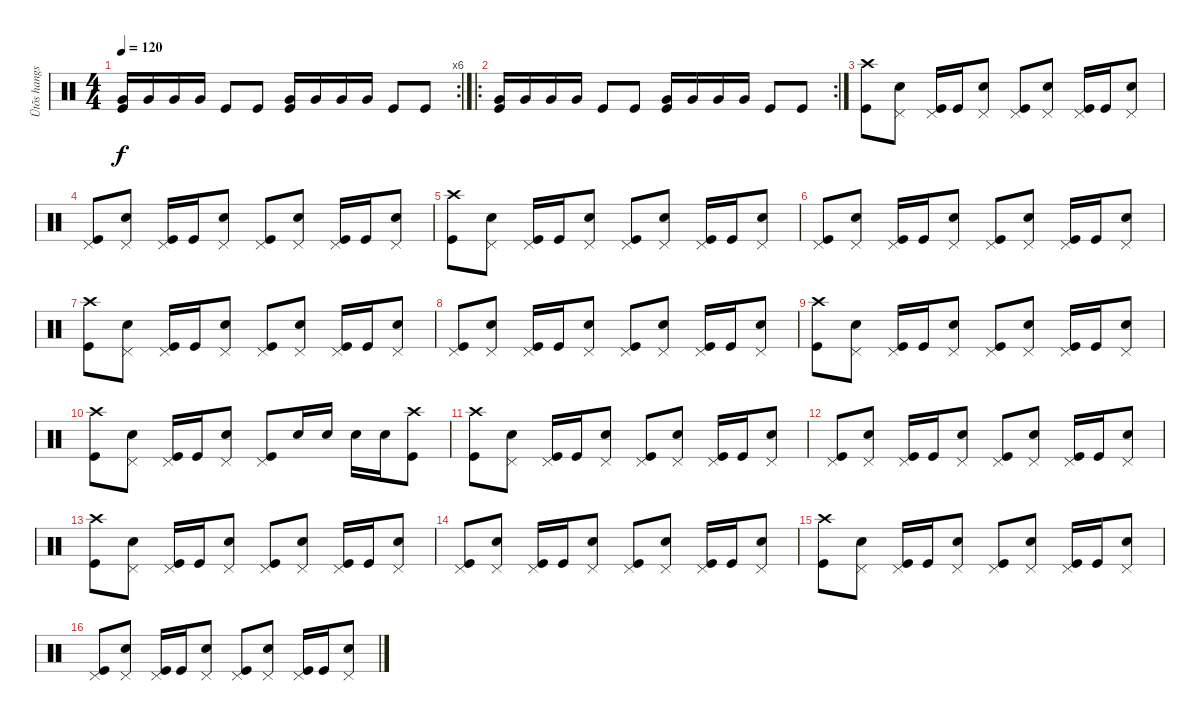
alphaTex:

\track ("Ütõs hangszer" "Ütõs hangs") {instrument percussion}
\staff {score}
\articulation defaults
\rc 6
\ts (4 4)
\tempo 120
\clef neutral
\ks c
("Very Low Tom (hit)" "Kick (hit)").16{dy f} "Very Low Tom (hit)".16 "Very Low Tom (hit)".16 "Very Low Tom (hit)".16 "Kick (hit)".8 "Kick (hit)".8 ("Very Low Tom (hit)" "Kick (hit)").16 "Very Low Tom (hit)".16 "Very Low Tom (hit)".16 "Very Low Tom (hit)".16 "Kick (hit)".8 "Kick (hit)".8 |
\ro
\rc 2
("Very Low Tom (hit)" "Kick (hit)").16 "Very Low Tom (hit)".16 "Very Low Tom (hit)".16 "Very Low Tom (hit)".16 "Kick (hit)".8 "Kick (hit)".8 ("Very Low Tom (hit)" "Kick (hit)").16 "Very Low Tom (hit)".16 "Very Low Tom (hit)".16 "Very Low Tom (hit)".16 "Kick (hit)".8 "Kick (hit)".8 |
("Crash high (hit)" "Kick (hit)").8 ("Pedal Hi-Hat (hit)" "Electric Snare (hit)").8 ("Pedal Hi-Hat (hit)" "Kick (hit)").16 "Kick (hit)".16 ("Pedal Hi-Hat (hit)" "Electric Snare (hit)").8 ("Pedal Hi-Hat (hit)" "Kick (hit)").8 ("Pedal Hi-Hat (hit)" "Electric Snare (hit)").8 ("Pedal Hi-Hat (hit)" "Kick (hit)").16 "Kick (hit)".16 ("Pedal Hi-Hat (hit)" "Electric Snare (hit)").8 |
("Pedal Hi-Hat (hit)" "Kick (hit)").8 ("Pedal Hi-Hat (hit)" "Electric Snare (hit)").8 ("Pedal Hi-Hat (hit)" "Kick (hit)").16 "Kick (hit)".16 ("Pedal Hi-Hat (hit)" "Electric Snare (hit)").8 ("Pedal Hi-Hat (hit)" "Kick (hit)").8 ("Pedal Hi-Hat (hit)" "Electric Snare (hit)").8 ("Pedal Hi-Hat (hit)" "Kick (hit)").16 "Kick (hit)".16 ("Pedal Hi-Hat (hit)" "Electric Snare (hit)").8 |
("Crash high (hit)" "Kick (hit)").8 ("Pedal Hi-Hat (hit)" "Electric Snare (hit)").8 ("Pedal Hi-Hat (hit)" "Kick (hit)").16 "Kick (hit)".16 ("Pedal Hi-Hat (hit)" "Electric Snare (hit)").8 ("Pedal Hi-Hat (hit)" "Kick (hit)").8 ("Pedal Hi-Hat (hit)" "Electric Snare (hit)").8 ("Pedal Hi-Hat (hit)" "Kick (hit)").16 "Kick (hit)".16 ("Pedal Hi-Hat (hit)" "Electric Snare (hit)").8 |
("Pedal Hi-Hat (hit)" "Kick (hit)").8 ("Pedal Hi-Hat (hit)" "Electric Snare (hit)").8 ("Pedal Hi-Hat (hit)" "Kick (hit)").16 "Kick (hit)".16 ("Pedal Hi-Hat (hit)" "Electric Snare (hit)").8 ("Pedal Hi-Hat (hit)" "Kick (hit)").8 ("Pedal Hi-Hat (hit)" "Electric Snare (hit)").8 ("Pedal Hi-Hat (hit)" "Kick (hit)").16 "Kick (hit)".16 ("Pedal Hi-Hat (hit)" "Electric Snare (hit)").8 |
("Crash high (hit)" "Kick (hit)").8 ("Pedal Hi-Hat (hit)" "Electric Snare (hit)").8 ("Pedal Hi-Hat (hit)" "Kick (hit)").16 "Kick (hit)".16 ("Pedal Hi-Hat (hit)" "Electric Snare (hit)").8 ("Pedal Hi-Hat (hit)" "Kick (hit)").8 ("Pedal Hi-Hat (hit)" "Electric Snare (hit)").8 ("Pedal Hi-Hat (hit)" "Kick (hit)").16 "Kick (hit)".16 ("Pedal Hi-Hat (hit)" "Electric Snare (hit)").8 |
("Pedal Hi-Hat (hit)" "Kick (hit)").8 ("Pedal Hi-Hat (hit)" "Electric Snare (hit)").8 ("Pedal Hi-Hat (hit)" "Kick (hit)").16 "Kick (hit)".16 ("Pedal Hi-Hat (hit)" "Electric Snare (hit)").8 ("Pedal Hi-Hat (hit)" "Kick (hit)").8 ("Pedal Hi-Hat (hit)" "Electric Snare (hit)").8 ("Pedal Hi-Hat (hit)" "Kick (hit)").16 "Kick (hit)".16 ("Pedal Hi-Hat (hit)" "Electric Snare (hit)").8 |
("Crash high (hit)" "Kick (hit)").8 ("Pedal Hi-Hat (hit)" "Electric Snare (hit)").8 ("Pedal Hi-Hat (hit)" "Kick (hit)").16 "Kick (hit)".16 ("Pedal Hi-Hat (hit)" "Electric Snare (hit)").8 ("Pedal Hi-Hat (hit)" "Kick (hit)").8 ("Pedal Hi-Hat (hit)" "Electric Snare (hit)").8 ("Pedal Hi-Hat (hit)" "Kick (hit)").16 "Kick (hit)".16 ("Pedal Hi-Hat (hit)" "Electric Snare (hit)").8 |
("Crash high (hit)" "Kick (hit)").8 ("Pedal Hi-Hat (hit)" "Electric Snare (hit)").8 ("Pedal Hi-Hat (hit)" "Kick (hit)").16 "Kick (hit)".16 ("Pedal Hi-Hat (hit)" "Electric Snare (hit)").8 ("Pedal Hi-Hat (hit)" "Kick (hit)").8 "Electric Snare (hit)".16 "Electric Snare (hit)".16 "Electric Snare (hit)".16 "Electric Snare (hit)".16 ("Crash high (hit)" "Kick (hit)").8 |
("Crash high (hit)" "Kick (hit)").8 ("Pedal Hi-Hat (hit)" "Electric Snare (hit)").8 ("Pedal Hi-Hat (hit)" "Kick (hit)").16 "Kick (hit)".16 ("Pedal Hi-Hat (hit)" "Electric Snare (hit)").8 ("Pedal Hi-Hat (hit)" "Kick (hit)").8 ("Pedal Hi-Hat (hit)" "Electric Snare (hit)").8 ("Pedal Hi-Hat (hit)" "Kick (hit)").16 "Kick (hit)".16 ("Pedal Hi-Hat (hit)" "Electric Snare (hit)").8 |
("Pedal Hi-Hat (hit)" "Kick (hit)").8 ("Pedal Hi-Hat (hit)" "Electric Snare (hit)").8 ("Pedal Hi-Hat (hit)" "Kick (hit)").16 "Kick (hit)".16 ("Pedal Hi-Hat (hit)" "Electric Snare (hit)").8 ("Pedal Hi-Hat (hit)" "Kick (hit)").8 ("Pedal Hi-Hat (hit)" "Electric Snare (hit)").8 ("Pedal Hi-Hat (hit)" "Kick (hit)").16 "Kick (hit)".16 ("Pedal Hi-Hat (hit)" "Electric Snare (hit)").8 |
("Crash high (hit)" "Kick (hit)").8 ("Pedal Hi-Hat (hit)" "Electric Snare (hit)").8 ("Pedal Hi-Hat (hit)" "Kick (hit)").16 "Kick (hit)".16 ("Pedal Hi-Hat (hit)" "Electric Snare (hit)").8 ("Pedal Hi-Hat (hit)" "Kick (hit)").8 ("Pedal Hi-Hat (hit)" "Electric Snare (hit)").8 ("Pedal Hi-Hat (hit)" "Kick (hit)").16 "Kick (hit)".16 ("Pedal Hi-Hat (hit)" "Electric Snare (hit)").8 |
("Pedal Hi-Hat (hit)" "Kick (hit)").8 ("Pedal Hi-Hat (hit)" "Electric Snare (hit)").8 ("Pedal Hi-Hat (hit)" "Kick (hit)").16 "Kick (hit)".16 ("Pedal Hi-Hat (hit)" "Electric Snare (hit)").8 ("Pedal Hi-Hat (hit)" "Kick (hit)").8 ("Pedal Hi-Hat (hit)" "Electric Snare (hit)").8 ("Pedal Hi-Hat (hit)" "Kick (hit)").16 "Kick (hit)".16 ("Pedal Hi-Hat (hit)" "Electric Snare (hit)").8 |
("Crash high (hit)" "Kick (hit)").8 ("Pedal Hi-Hat (hit)" "Electric Snare (hit)").8 ("Pedal Hi-Hat (hit)" "Kick (hit)").16 "Kick (hit)".16 ("Pedal Hi-Hat (hit)" "Electric Snare (hit)").8 ("Pedal Hi-Hat (hit)" "Kick (hit)").8 ("Pedal Hi-Hat (hit)" "Electric Snare (hit)").8 ("Pedal Hi-Hat (hit)" "Kick (hit)").16 "Kick (hit)".16 ("Pedal Hi-Hat (hit)" "Electric Snare (hit)").8 |
("Pedal Hi-Hat (hit)" "Kick (hit)").8 ("Pedal Hi-Hat (hit)" "Electric Snare (hit)").8 ("Pedal Hi-Hat (hit)" "Kick (hit)").16 "Kick (hit)".16 ("Pedal Hi-Hat (hit)" "Electric Snare (hit)").8 ("Pedal Hi-Hat (hit)" "Kick (hit)").8 ("Pedal Hi-Hat (hit)" "Electric Snare (hit)").8 ("Pedal Hi-Hat (hit)" "Kick (hit)").16 "Kick (hit)".16 ("Pedal Hi-Hat (hit)" "Electric Snare (hit)").8
